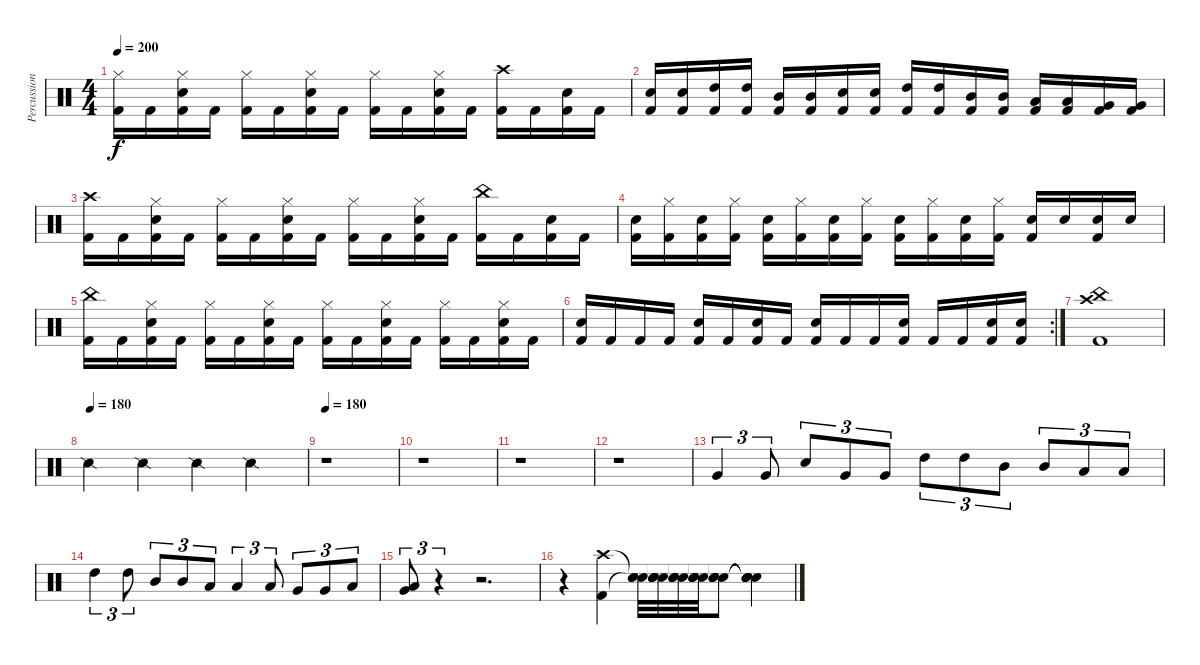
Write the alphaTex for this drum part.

\track ("Percussion" "Percussion") {instrument percussion}
\staff {score}
\articulation defaults
\ts (4 4)
\tempo 200
\clef neutral
\ks c
("Hi-Hat (closed)" "Kick (hit) 2").16{dy f} "Kick (hit) 2".16 ("Hi-Hat (closed)" "Snare (hit) 2" "Kick (hit) 2").16 "Kick (hit) 2".16 ("Hi-Hat (closed)" "Kick (hit) 2").16 "Kick (hit) 2".16 ("Hi-Hat (closed)" "Snare (hit) 2" "Kick (hit) 2").16 "Kick (hit) 2".16 ("Hi-Hat (closed)" "Kick (hit) 2").16 "Kick (hit) 2".16 ("Hi-Hat (closed)" "Snare (hit) 2" "Kick (hit) 2").16 "Kick (hit) 2".16 ("Crash high (hit)" "Kick (hit) 2").16 "Kick (hit) 2".16 ("Snare (hit) 2" "Kick (hit) 2").16 "Kick (hit) 2".16 |
("Snare (hit) 2" "Kick (hit) 2").16 ("Snare (hit) 2" "Kick (hit) 2").16 ("High Tom (hit)" "Kick (hit) 2").16 ("High Tom (hit)" "Kick (hit) 2").16 ("Mid Tom (hit)" "Kick (hit) 2").16 ("Mid Tom (hit)" "Kick (hit) 2").16 ("Snare (hit) 2" "Kick (hit) 2").16 ("Snare (hit) 2" "Kick (hit) 2").16 ("High Tom (hit)" "Kick (hit) 2").16 ("High Tom (hit)" "Kick (hit) 2").16 ("Mid Tom (hit)" "Kick (hit) 2").16 ("Mid Tom (hit)" "Kick (hit) 2").16 ("Low Tom (hit)" "Kick (hit) 2").16 ("Low Tom (hit)" "Kick (hit) 2").16 ("Very Low Tom (hit)" "Kick (hit) 2").16 ("Very Low Tom (hit)" "Kick (hit) 2").16 |
("Crash high (hit)" "Kick (hit) 2").16 "Kick (hit) 2".16 ("Hi-Hat (closed)" "Snare (hit) 2" "Kick (hit) 2").16 "Kick (hit) 2".16 ("Hi-Hat (closed)" "Kick (hit) 2").16 "Kick (hit) 2".16 ("Hi-Hat (closed)" "Snare (hit) 2" "Kick (hit) 2").16 "Kick (hit) 2".16 ("Hi-Hat (closed)" "Kick (hit) 2").16 "Kick (hit) 2".16 ("Hi-Hat (closed)" "Snare (hit) 2" "Kick (hit) 2").16 "Kick (hit) 2".16 ("China (hit)" "Kick (hit) 2").16 "Kick (hit) 2".16 ("Snare (hit) 2" "Kick (hit) 2").16 "Kick (hit) 2".16 |
("Snare (hit) 2" "Kick (hit) 2").16 ("Hi-Hat (closed)" "Kick (hit) 2").16 ("Snare (hit) 2" "Kick (hit) 2").16 ("Hi-Hat (closed)" "Kick (hit) 2").16 ("Snare (hit) 2" "Kick (hit) 2").16 ("Hi-Hat (closed)" "Kick (hit) 2").16 ("Snare (hit) 2" "Kick (hit) 2").16 ("Hi-Hat (closed)" "Kick (hit) 2").16 ("Snare (hit) 2" "Kick (hit) 2").16 ("Hi-Hat (closed)" "Kick (hit) 2").16 ("Snare (hit) 2" "Kick (hit) 2").16 ("Hi-Hat (closed)" "Kick (hit) 2").16 ("Snare (hit) 2" "Kick (hit) 2").16 "Snare (hit) 2".16 ("Snare (hit) 2" "Kick (hit) 2").16 "Snare (hit) 2".16 |
("China (hit)" "Kick (hit) 2").16 "Kick (hit) 2".16 ("Hi-Hat (closed)" "Snare (hit) 2" "Kick (hit) 2").16 "Kick (hit) 2".16 ("Hi-Hat (closed)" "Kick (hit) 2").16 "Kick (hit) 2".16 ("Hi-Hat (closed)" "Snare (hit) 2" "Kick (hit) 2").16 "Kick (hit) 2".16 ("Hi-Hat (closed)" "Kick (hit) 2").16 "Kick (hit) 2".16 ("Hi-Hat (closed)" "Snare (hit) 2" "Kick (hit) 2").16 "Kick (hit) 2".16 ("Hi-Hat (closed)" "Kick (hit) 2").16 "Kick (hit) 2".16 ("Hi-Hat (closed)" "Snare (hit) 2" "Kick (hit) 2").16 "Kick (hit) 2".16 |
\rc 2
("Snare (hit) 2" "Kick (hit) 2").16 "Kick (hit) 2".16 "Kick (hit) 2".16 "Kick (hit) 2".16 ("Snare (hit) 2" "Kick (hit) 2").16 "Kick (hit) 2".16 ("Snare (hit) 2" "Kick (hit) 2").16 "Kick (hit) 2".16 ("Snare (hit) 2" "Kick (hit) 2").16 "Kick (hit) 2".16 "Kick (hit) 2".16 ("Snare (hit) 2" "Kick (hit) 2").16 "Kick (hit) 2".16 "Kick (hit) 2".16 ("Snare (hit) 2" "Kick (hit) 2").16 ("Snare (hit) 2" "Kick (hit) 2").16 |
("Kick (hit) 2" "Crash high (hit)" "China (hit)").1 |
\tempo (180)
"Snare (side stick) 2".4 "Snare (side stick) 2".4 "Snare (side stick) 2".4 "Snare (side stick) 2".4 |
\tempo 180
r.1 |
r.1 |
r.1 |
r.1 |
"Very Low Tom (hit)".4{tu (3 2)} "Very Low Tom (hit)".8{tu (3 2)} "Snare (hit) 2".8{tu (3 2)} "Very Low Tom (hit)".8{tu (3 2)} "Very Low Tom (hit)".8{tu (3 2)} "High Tom (hit)".8{tu (3 2)} "High Tom (hit)".8{tu (3 2)} "Mid Tom (hit)".8{tu (3 2)} "Mid Tom (hit)".8{tu (3 2)} "Low Tom (hit)".8{tu (3 2)} "Low Tom (hit)".8{tu (3 2)} |
"High Tom (hit)".4{tu (3 2)} "High Tom (hit)".8{tu (3 2)} "Mid Tom (hit)".8{tu (3 2)} "Mid Tom (hit)".8{tu (3 2)} "Low Tom (hit)".8{tu (3 2)} "Low Tom (hit)".4{tu (3 2)} "Low Tom (hit)".8{tu (3 2)} "Very Low Tom (hit)".8{tu (3 2)} "Very Low Tom (hit)".8{tu (3 2)} "Low Floor Tom (hit)".8{tu (3 2)} |
("Very Low Tom (hit)" "Low Floor Tom (hit)").8{tu (3 2)} r.4{tu (3 2)} r.2{d} |
r.4 ("Kick (hit) 2" "Crash high (hit)").4 ("Snare (hit)"{t} "Snare (hit)"{t} "Snare (hit) 2").32 ("Snare (hit)"{t} "Snare (hit)"{t} "Snare (hit) 2" "Snare (hit)").32 ("Snare (hit)"{t} "Snare (hit)"{t} "Snare (hit)"{t} "Snare (hit)"{t}).32 ("Snare (hit)"{t} "Snare (hit)"{t} "Snare (hit)"{t} "Snare (hit)"{t}).32 ("Snare (hit)"{t} "Snare (hit)"{t} "Snare (hit)"{t} "Snare (hit)"{t}).8 ("Snare (hit)"{t} "Snare (hit)"{t} "Snare (hit)"{t} "Snare (hit)"{t}).4
